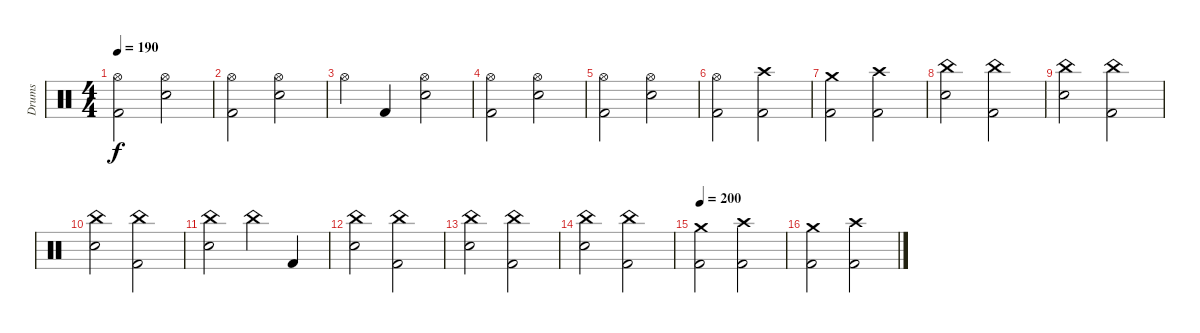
\track ("Drums" "Drums") {instrument percussion}
\staff {score}
\articulation defaults
\ts (4 4)
\tempo 190
\clef neutral
\ks c
("Hi-Hat (open)" "Kick (hit) 2").2{dy f} ("Hi-Hat (open)" "Electric Snare (hit)").2 |
("Hi-Hat (open)" "Kick (hit) 2").2 ("Hi-Hat (open)" "Electric Snare (hit)").2 |
"Hi-Hat (open)".4 "Kick (hit) 2".4 ("Hi-Hat (open)" "Electric Snare (hit)").2 |
("Hi-Hat (open)" "Kick (hit) 2").2 ("Hi-Hat (open)" "Electric Snare (hit)").2 |
("Hi-Hat (open)" "Kick (hit) 2").2 ("Hi-Hat (open)" "Electric Snare (hit)").2 |
("Hi-Hat (open)" "Kick (hit) 2").2 ("Crash high (hit)" "Kick (hit) 2").2 |
("Crash medium (hit)" "Kick (hit) 2").2 ("Crash high (hit)" "Kick (hit) 2").2 |
("China (hit)" "Electric Snare (hit)").2 ("China (hit)" "Kick (hit) 2").2 |
("China (hit)" "Electric Snare (hit)").2 ("China (hit)" "Kick (hit) 2").2 |
("China (hit)" "Electric Snare (hit)").2 ("China (hit)" "Kick (hit) 2").2 |
("China (hit)" "Electric Snare (hit)").2 "China (hit)".4 "Kick (hit) 2".4 |
("China (hit)" "Electric Snare (hit)").2 ("China (hit)" "Kick (hit) 2").2 |
("China (hit)" "Electric Snare (hit)").2 ("China (hit)" "Kick (hit) 2").2 |
("China (hit)" "Electric Snare (hit)").2 ("China (hit)" "Kick (hit) 2").2 |
\tempo 200
("Crash medium (hit)" "Kick (hit) 2").2 ("Crash high (hit)" "Kick (hit) 2").2 |
("Crash medium (hit)" "Kick (hit) 2").2 ("Crash high (hit)" "Kick (hit) 2").2
